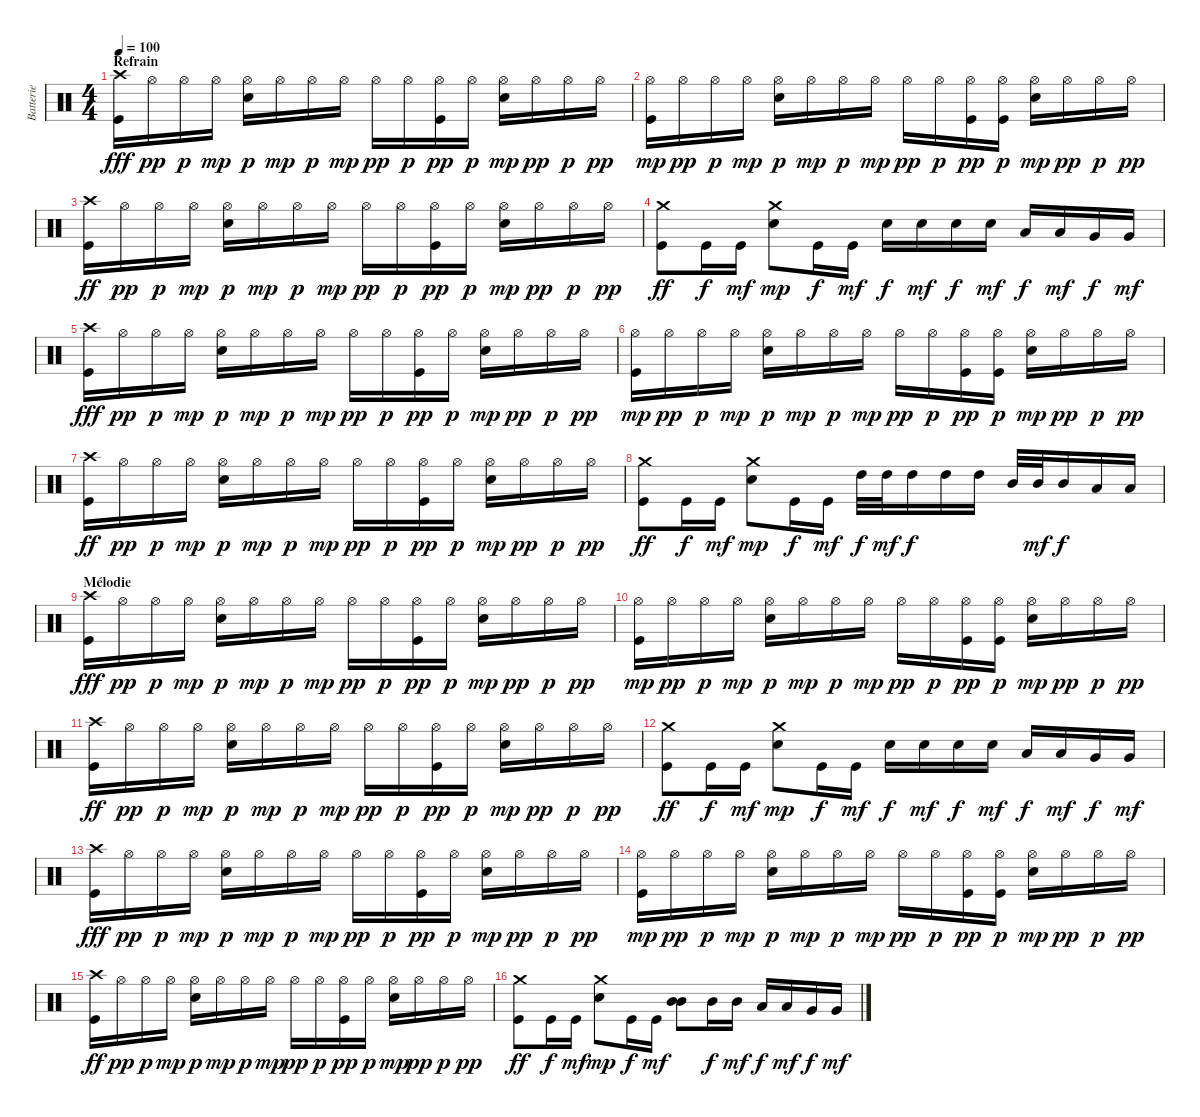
\track ("Batterie" "Batterie") {instrument percussion}
\staff {score}
\articulation defaults
\ts (4 4)
\section ("" "Refrain")
\tempo 100
\clef neutral
\ks c
("Crash high (hit)" "Kick (hit)").16{dy fff} "Hi-Hat (open)".16{dy pp} "Hi-Hat (open)".16{dy p} "Hi-Hat (open)".16{dy mp} ("Hi-Hat (open)" "Snare (hit) 2").16{dy p} "Hi-Hat (open)".16{dy mp} "Hi-Hat (open)".16{dy p} "Hi-Hat (open)".16{dy mp} "Hi-Hat (open)".16{dy pp} "Hi-Hat (open)".16{dy p} ("Hi-Hat (open)" "Kick (hit)").16{dy pp} "Hi-Hat (open)".16{dy p} ("Hi-Hat (open)" "Snare (hit) 2").16{dy mp} "Hi-Hat (open)".16{dy pp} "Hi-Hat (open)".16{dy p} "Hi-Hat (open)".16{dy pp} |
("Hi-Hat (open)" "Kick (hit)").16{dy mp} "Hi-Hat (open)".16{dy pp} "Hi-Hat (open)".16{dy p} "Hi-Hat (open)".16{dy mp} ("Hi-Hat (open)" "Snare (hit) 2").16{dy p} "Hi-Hat (open)".16{dy mp} "Hi-Hat (open)".16{dy p} "Hi-Hat (open)".16{dy mp} "Hi-Hat (open)".16{dy pp} "Hi-Hat (open)".16{dy p} ("Hi-Hat (open)" "Kick (hit)").16{dy pp} ("Hi-Hat (open)" "Kick (hit)").16{dy p} ("Hi-Hat (open)" "Snare (hit) 2").16{dy mp} "Hi-Hat (open)".16{dy pp} "Hi-Hat (open)".16{dy p} "Hi-Hat (open)".16{dy pp} |
("Crash high (hit)" "Kick (hit)").16{dy ff} "Hi-Hat (open)".16{dy pp} "Hi-Hat (open)".16{dy p} "Hi-Hat (open)".16{dy mp} ("Hi-Hat (open)" "Snare (hit) 2").16{dy p} "Hi-Hat (open)".16{dy mp} "Hi-Hat (open)".16{dy p} "Hi-Hat (open)".16{dy mp} "Hi-Hat (open)".16{dy pp} "Hi-Hat (open)".16{dy p} ("Hi-Hat (open)" "Kick (hit)").16{dy pp} "Hi-Hat (open)".16{dy p} ("Hi-Hat (open)" "Snare (hit) 2").16{dy mp} "Hi-Hat (open)".16{dy pp} "Hi-Hat (open)".16{dy p} "Hi-Hat (open)".16{dy pp} |
("Crash medium (hit)" "Kick (hit)").8{dy ff} "Kick (hit)".16{dy f} "Kick (hit)".16{dy mf} ("Crash medium (hit)" "Snare (hit) 2").8{dy mp} "Kick (hit)".16{dy f} "Kick (hit)".16{dy mf} "Snare (hit) 2".16{dy f} "Snare (hit) 2".16{dy mf} "Snare (hit) 2".16{dy f} "Snare (hit) 2".16{dy mf} "Low Tom (hit)".16{dy f} "Low Tom (hit)".16{dy mf} "Very Low Tom (hit)".16{dy f} "Very Low Tom (hit)".16{dy mf} |
("Crash high (hit)" "Kick (hit)").16{dy fff} "Hi-Hat (open)".16{dy pp} "Hi-Hat (open)".16{dy p} "Hi-Hat (open)".16{dy mp} ("Hi-Hat (open)" "Snare (hit) 2").16{dy p} "Hi-Hat (open)".16{dy mp} "Hi-Hat (open)".16{dy p} "Hi-Hat (open)".16{dy mp} "Hi-Hat (open)".16{dy pp} "Hi-Hat (open)".16{dy p} ("Hi-Hat (open)" "Kick (hit)").16{dy pp} "Hi-Hat (open)".16{dy p} ("Hi-Hat (open)" "Snare (hit) 2").16{dy mp} "Hi-Hat (open)".16{dy pp} "Hi-Hat (open)".16{dy p} "Hi-Hat (open)".16{dy pp} |
("Hi-Hat (open)" "Kick (hit)").16{dy mp} "Hi-Hat (open)".16{dy pp} "Hi-Hat (open)".16{dy p} "Hi-Hat (open)".16{dy mp} ("Hi-Hat (open)" "Snare (hit) 2").16{dy p} "Hi-Hat (open)".16{dy mp} "Hi-Hat (open)".16{dy p} "Hi-Hat (open)".16{dy mp} "Hi-Hat (open)".16{dy pp} "Hi-Hat (open)".16{dy p} ("Hi-Hat (open)" "Kick (hit)").16{dy pp} ("Hi-Hat (open)" "Kick (hit)").16{dy p} ("Hi-Hat (open)" "Snare (hit) 2").16{dy mp} "Hi-Hat (open)".16{dy pp} "Hi-Hat (open)".16{dy p} "Hi-Hat (open)".16{dy pp} |
("Crash high (hit)" "Kick (hit)").16{dy ff} "Hi-Hat (open)".16{dy pp} "Hi-Hat (open)".16{dy p} "Hi-Hat (open)".16{dy mp} ("Hi-Hat (open)" "Snare (hit) 2").16{dy p} "Hi-Hat (open)".16{dy mp} "Hi-Hat (open)".16{dy p} "Hi-Hat (open)".16{dy mp} "Hi-Hat (open)".16{dy pp} "Hi-Hat (open)".16{dy p} ("Hi-Hat (open)" "Kick (hit)").16{dy pp} "Hi-Hat (open)".16{dy p} ("Hi-Hat (open)" "Snare (hit) 2").16{dy mp} "Hi-Hat (open)".16{dy pp} "Hi-Hat (open)".16{dy p} "Hi-Hat (open)".16{dy pp} |
("Crash medium (hit)" "Kick (hit)").8{dy ff} "Kick (hit)".16{dy f} "Kick (hit)".16{dy mf} ("Crash medium (hit)" "Snare (hit) 2").8{dy mp} "Kick (hit)".16{dy f} "Kick (hit)".16{dy mf} "High Tom (hit)".32{dy f} "High Tom (hit)".32{dy mf} "High Tom (hit)".16{dy f} "High Tom (hit)".16 "High Tom (hit)".16 "Mid Tom (hit)".32 "Mid Tom (hit)".32{dy mf} "Mid Tom (hit)".16{dy f} "Low Tom (hit)".16 "Low Tom (hit)".16 |
\section ("" "Mélodie")
("Crash high (hit)" "Kick (hit)").16{dy fff} "Hi-Hat (open)".16{dy pp} "Hi-Hat (open)".16{dy p} "Hi-Hat (open)".16{dy mp} ("Hi-Hat (open)" "Snare (hit) 2").16{dy p} "Hi-Hat (open)".16{dy mp} "Hi-Hat (open)".16{dy p} "Hi-Hat (open)".16{dy mp} "Hi-Hat (open)".16{dy pp} "Hi-Hat (open)".16{dy p} ("Hi-Hat (open)" "Kick (hit)").16{dy pp} "Hi-Hat (open)".16{dy p} ("Hi-Hat (open)" "Snare (hit) 2").16{dy mp} "Hi-Hat (open)".16{dy pp} "Hi-Hat (open)".16{dy p} "Hi-Hat (open)".16{dy pp} |
("Hi-Hat (open)" "Kick (hit)").16{dy mp} "Hi-Hat (open)".16{dy pp} "Hi-Hat (open)".16{dy p} "Hi-Hat (open)".16{dy mp} ("Hi-Hat (open)" "Snare (hit) 2").16{dy p} "Hi-Hat (open)".16{dy mp} "Hi-Hat (open)".16{dy p} "Hi-Hat (open)".16{dy mp} "Hi-Hat (open)".16{dy pp} "Hi-Hat (open)".16{dy p} ("Hi-Hat (open)" "Kick (hit)").16{dy pp} ("Hi-Hat (open)" "Kick (hit)").16{dy p} ("Hi-Hat (open)" "Snare (hit) 2").16{dy mp} "Hi-Hat (open)".16{dy pp} "Hi-Hat (open)".16{dy p} "Hi-Hat (open)".16{dy pp} |
("Crash high (hit)" "Kick (hit)").16{dy ff} "Hi-Hat (open)".16{dy pp} "Hi-Hat (open)".16{dy p} "Hi-Hat (open)".16{dy mp} ("Hi-Hat (open)" "Snare (hit) 2").16{dy p} "Hi-Hat (open)".16{dy mp} "Hi-Hat (open)".16{dy p} "Hi-Hat (open)".16{dy mp} "Hi-Hat (open)".16{dy pp} "Hi-Hat (open)".16{dy p} ("Hi-Hat (open)" "Kick (hit)").16{dy pp} "Hi-Hat (open)".16{dy p} ("Hi-Hat (open)" "Snare (hit) 2").16{dy mp} "Hi-Hat (open)".16{dy pp} "Hi-Hat (open)".16{dy p} "Hi-Hat (open)".16{dy pp} |
("Crash medium (hit)" "Kick (hit)").8{dy ff} "Kick (hit)".16{dy f} "Kick (hit)".16{dy mf} ("Crash medium (hit)" "Snare (hit) 2").8{dy mp} "Kick (hit)".16{dy f} "Kick (hit)".16{dy mf} "Snare (hit) 2".16{dy f} "Snare (hit) 2".16{dy mf} "Snare (hit) 2".16{dy f} "Snare (hit) 2".16{dy mf} "Low Tom (hit)".16{dy f} "Low Tom (hit)".16{dy mf} "Very Low Tom (hit)".16{dy f} "Very Low Tom (hit)".16{dy mf} |
("Crash high (hit)" "Kick (hit)").16{dy fff} "Hi-Hat (open)".16{dy pp} "Hi-Hat (open)".16{dy p} "Hi-Hat (open)".16{dy mp} ("Hi-Hat (open)" "Snare (hit) 2").16{dy p} "Hi-Hat (open)".16{dy mp} "Hi-Hat (open)".16{dy p} "Hi-Hat (open)".16{dy mp} "Hi-Hat (open)".16{dy pp} "Hi-Hat (open)".16{dy p} ("Hi-Hat (open)" "Kick (hit)").16{dy pp} "Hi-Hat (open)".16{dy p} ("Hi-Hat (open)" "Snare (hit) 2").16{dy mp} "Hi-Hat (open)".16{dy pp} "Hi-Hat (open)".16{dy p} "Hi-Hat (open)".16{dy pp} |
("Hi-Hat (open)" "Kick (hit)").16{dy mp} "Hi-Hat (open)".16{dy pp} "Hi-Hat (open)".16{dy p} "Hi-Hat (open)".16{dy mp} ("Hi-Hat (open)" "Snare (hit) 2").16{dy p} "Hi-Hat (open)".16{dy mp} "Hi-Hat (open)".16{dy p} "Hi-Hat (open)".16{dy mp} "Hi-Hat (open)".16{dy pp} "Hi-Hat (open)".16{dy p} ("Hi-Hat (open)" "Kick (hit)").16{dy pp} ("Hi-Hat (open)" "Kick (hit)").16{dy p} ("Hi-Hat (open)" "Snare (hit) 2").16{dy mp} "Hi-Hat (open)".16{dy pp} "Hi-Hat (open)".16{dy p} "Hi-Hat (open)".16{dy pp} |
("Crash high (hit)" "Kick (hit)").16{dy ff} "Hi-Hat (open)".16{dy pp} "Hi-Hat (open)".16{dy p} "Hi-Hat (open)".16{dy mp} ("Hi-Hat (open)" "Snare (hit) 2").16{dy p} "Hi-Hat (open)".16{dy mp} "Hi-Hat (open)".16{dy p} "Hi-Hat (open)".16{dy mp} "Hi-Hat (open)".16{dy pp} "Hi-Hat (open)".16{dy p} ("Hi-Hat (open)" "Kick (hit)").16{dy pp} "Hi-Hat (open)".16{dy p} ("Hi-Hat (open)" "Snare (hit) 2").16{dy mp} "Hi-Hat (open)".16{dy pp} "Hi-Hat (open)".16{dy p} "Hi-Hat (open)".16{dy pp} |
("Crash medium (hit)" "Kick (hit)").8{dy ff} "Kick (hit)".16{dy f} "Kick (hit)".16{dy mf} ("Crash medium (hit)" "Snare (hit) 2").8{dy mp} "Kick (hit)".16{dy f} "Kick (hit)".16{dy mf} ("Mid Tom (hit)" "Mid Tom (hit)").8{bd 120} "Mid Tom (hit)".16{dy f} "Mid Tom (hit)".16{dy mf} "Low Tom (hit)".16{dy f} "Low Tom (hit)".16{dy mf} "Very Low Tom (hit)".16{dy f} "Very Low Tom (hit)".16{dy mf}
